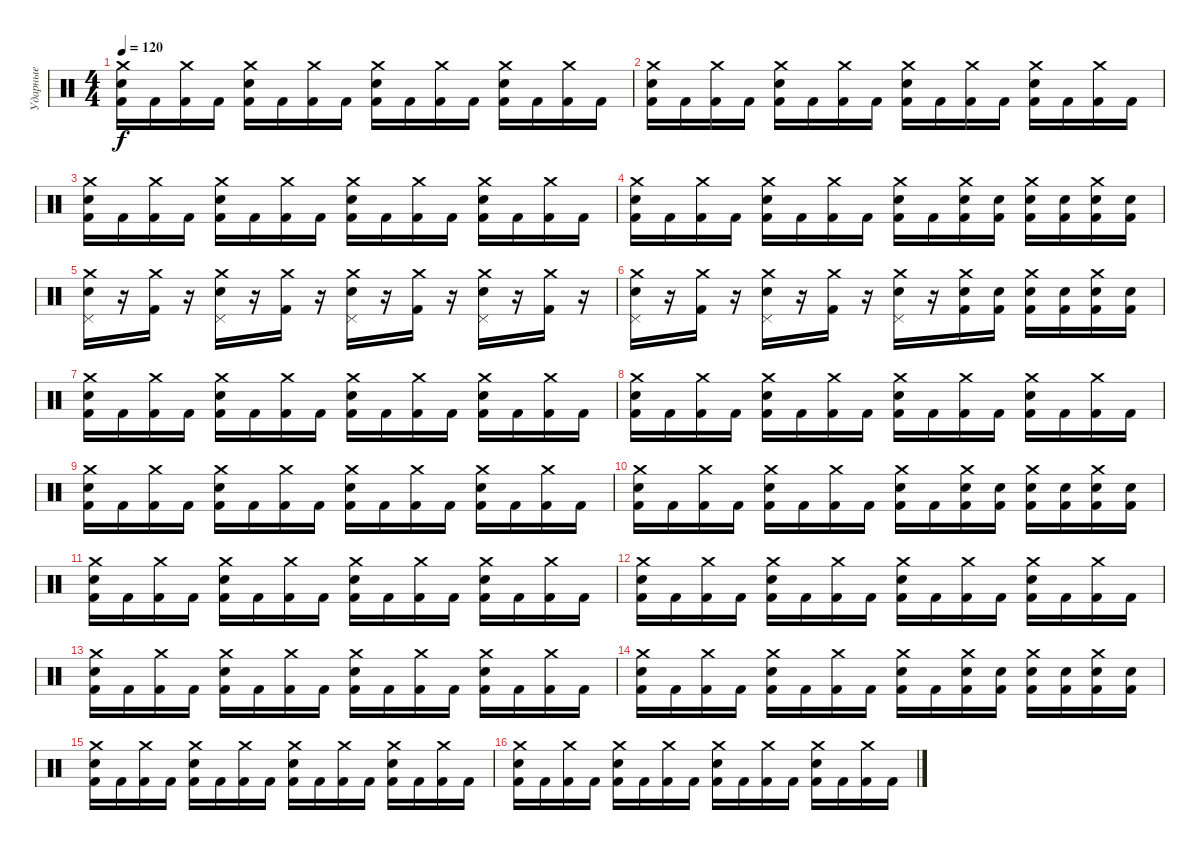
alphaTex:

\track ("Ударные" "Ударные") {instrument percussion}
\staff
\articulation defaults
\ts (4 4)
\tempo 120
\clef neutral
\ks c
("Crash medium (hit)" "Kick (hit) 2" "Electric Snare (hit)").16{dy f} "Kick (hit) 2".16 ("Crash medium (hit)" "Kick (hit) 2").16 "Kick (hit) 2".16 ("Crash medium (hit)" "Kick (hit) 2" "Electric Snare (hit)").16 "Kick (hit) 2".16 ("Crash medium (hit)" "Kick (hit) 2").16 "Kick (hit) 2".16 ("Crash medium (hit)" "Kick (hit) 2" "Electric Snare (hit)").16 "Kick (hit) 2".16 ("Crash medium (hit)" "Kick (hit) 2").16 "Kick (hit) 2".16 ("Crash medium (hit)" "Kick (hit) 2" "Electric Snare (hit)").16 "Kick (hit) 2".16 ("Crash medium (hit)" "Kick (hit) 2").16 "Kick (hit) 2".16 |
("Crash medium (hit)" "Kick (hit) 2" "Electric Snare (hit)").16 "Kick (hit) 2".16 ("Crash medium (hit)" "Kick (hit) 2").16 "Kick (hit) 2".16 ("Crash medium (hit)" "Kick (hit) 2" "Electric Snare (hit)").16 "Kick (hit) 2".16 ("Crash medium (hit)" "Kick (hit) 2").16 "Kick (hit) 2".16 ("Crash medium (hit)" "Kick (hit) 2" "Electric Snare (hit)").16 "Kick (hit) 2".16 ("Crash medium (hit)" "Kick (hit) 2").16 "Kick (hit) 2".16 ("Crash medium (hit)" "Kick (hit) 2" "Electric Snare (hit)").16 "Kick (hit) 2".16 ("Crash medium (hit)" "Kick (hit) 2").16 "Kick (hit) 2".16 |
("Crash medium (hit)" "Kick (hit) 2" "Electric Snare (hit)").16 "Kick (hit) 2".16 ("Crash medium (hit)" "Kick (hit) 2").16 "Kick (hit) 2".16 ("Crash medium (hit)" "Kick (hit) 2" "Electric Snare (hit)").16 "Kick (hit) 2".16 ("Crash medium (hit)" "Kick (hit) 2").16 "Kick (hit) 2".16 ("Crash medium (hit)" "Kick (hit) 2" "Electric Snare (hit)").16 "Kick (hit) 2".16 ("Crash medium (hit)" "Kick (hit) 2").16 "Kick (hit) 2".16 ("Crash medium (hit)" "Kick (hit) 2" "Electric Snare (hit)").16 "Kick (hit) 2".16 ("Crash medium (hit)" "Kick (hit) 2").16 "Kick (hit) 2".16 |
("Crash medium (hit)" "Kick (hit) 2" "Electric Snare (hit)").16 "Kick (hit) 2".16 ("Crash medium (hit)" "Kick (hit) 2").16 "Kick (hit) 2".16 ("Crash medium (hit)" "Kick (hit) 2" "Electric Snare (hit)").16 "Kick (hit) 2".16 ("Crash medium (hit)" "Kick (hit) 2").16 "Kick (hit) 2".16 ("Crash medium (hit)" "Kick (hit) 2" "Electric Snare (hit)").16 "Kick (hit) 2".16 ("Crash medium (hit)" "Kick (hit) 2" "Electric Snare (hit)").16 ("Kick (hit) 2" "Electric Snare (hit)").16 ("Crash medium (hit)" "Kick (hit) 2" "Electric Snare (hit)").16 ("Kick (hit) 2" "Electric Snare (hit)").16 ("Crash medium (hit)" "Kick (hit) 2" "Electric Snare (hit)").16 ("Kick (hit) 2" "Electric Snare (hit)").16 |
("Crash medium (hit)" "Electric Snare (hit)" "Pedal Hi-Hat (hit)").16 r.16 ("Crash medium (hit)" "Kick (hit) 2").16 r.16 ("Crash medium (hit)" "Electric Snare (hit)" "Pedal Hi-Hat (hit)").16 r.16 ("Crash medium (hit)" "Kick (hit) 2").16 r.16 ("Crash medium (hit)" "Electric Snare (hit)" "Pedal Hi-Hat (hit)").16 r.16 ("Crash medium (hit)" "Kick (hit) 2").16 r.16 ("Crash medium (hit)" "Electric Snare (hit)" "Pedal Hi-Hat (hit)").16 r.16 ("Crash medium (hit)" "Kick (hit) 2").16 r.16 |
("Crash medium (hit)" "Electric Snare (hit)" "Pedal Hi-Hat (hit)").16 r.16 ("Crash medium (hit)" "Kick (hit) 2").16 r.16 ("Crash medium (hit)" "Electric Snare (hit)" "Pedal Hi-Hat (hit)").16 r.16 ("Crash medium (hit)" "Kick (hit) 2").16 r.16 ("Crash medium (hit)" "Electric Snare (hit)" "Pedal Hi-Hat (hit)").16 r.16 ("Crash medium (hit)" "Kick (hit) 2" "Electric Snare (hit)").16 ("Kick (hit) 2" "Electric Snare (hit)").16 ("Crash medium (hit)" "Kick (hit) 2" "Electric Snare (hit)").16 ("Kick (hit) 2" "Electric Snare (hit)").16 ("Crash medium (hit)" "Kick (hit) 2" "Electric Snare (hit)").16 ("Kick (hit) 2" "Electric Snare (hit)").16 |
("Crash medium (hit)" "Kick (hit) 2" "Electric Snare (hit)").16 "Kick (hit) 2".16 ("Crash medium (hit)" "Kick (hit) 2").16 "Kick (hit) 2".16 ("Crash medium (hit)" "Kick (hit) 2" "Electric Snare (hit)").16 "Kick (hit) 2".16 ("Crash medium (hit)" "Kick (hit) 2").16 "Kick (hit) 2".16 ("Crash medium (hit)" "Kick (hit) 2" "Electric Snare (hit)").16 "Kick (hit) 2".16 ("Crash medium (hit)" "Kick (hit) 2").16 "Kick (hit) 2".16 ("Crash medium (hit)" "Kick (hit) 2" "Electric Snare (hit)").16 "Kick (hit) 2".16 ("Crash medium (hit)" "Kick (hit) 2").16 "Kick (hit) 2".16 |
("Crash medium (hit)" "Kick (hit) 2" "Electric Snare (hit)").16 "Kick (hit) 2".16 ("Crash medium (hit)" "Kick (hit) 2").16 "Kick (hit) 2".16 ("Crash medium (hit)" "Kick (hit) 2" "Electric Snare (hit)").16 "Kick (hit) 2".16 ("Crash medium (hit)" "Kick (hit) 2").16 "Kick (hit) 2".16 ("Crash medium (hit)" "Kick (hit) 2" "Electric Snare (hit)").16 "Kick (hit) 2".16 ("Crash medium (hit)" "Kick (hit) 2").16 "Kick (hit) 2".16 ("Crash medium (hit)" "Kick (hit) 2" "Electric Snare (hit)").16 "Kick (hit) 2".16 ("Crash medium (hit)" "Kick (hit) 2").16 "Kick (hit) 2".16 |
("Crash medium (hit)" "Kick (hit) 2" "Electric Snare (hit)").16 "Kick (hit) 2".16 ("Crash medium (hit)" "Kick (hit) 2").16 "Kick (hit) 2".16 ("Crash medium (hit)" "Kick (hit) 2" "Electric Snare (hit)").16 "Kick (hit) 2".16 ("Crash medium (hit)" "Kick (hit) 2").16 "Kick (hit) 2".16 ("Crash medium (hit)" "Kick (hit) 2" "Electric Snare (hit)").16 "Kick (hit) 2".16 ("Crash medium (hit)" "Kick (hit) 2").16 "Kick (hit) 2".16 ("Crash medium (hit)" "Kick (hit) 2" "Electric Snare (hit)").16 "Kick (hit) 2".16 ("Crash medium (hit)" "Kick (hit) 2").16 "Kick (hit) 2".16 |
("Crash medium (hit)" "Kick (hit) 2" "Electric Snare (hit)").16 "Kick (hit) 2".16 ("Crash medium (hit)" "Kick (hit) 2").16 "Kick (hit) 2".16 ("Crash medium (hit)" "Kick (hit) 2" "Electric Snare (hit)").16 "Kick (hit) 2".16 ("Crash medium (hit)" "Kick (hit) 2").16 "Kick (hit) 2".16 ("Crash medium (hit)" "Kick (hit) 2" "Electric Snare (hit)").16 "Kick (hit) 2".16 ("Crash medium (hit)" "Kick (hit) 2" "Electric Snare (hit)").16 ("Kick (hit) 2" "Electric Snare (hit)").16 ("Crash medium (hit)" "Kick (hit) 2" "Electric Snare (hit)").16 ("Kick (hit) 2" "Electric Snare (hit)").16 ("Crash medium (hit)" "Kick (hit) 2" "Electric Snare (hit)").16 ("Kick (hit) 2" "Electric Snare (hit)").16 |
("Crash medium (hit)" "Kick (hit) 2" "Electric Snare (hit)").16 "Kick (hit) 2".16 ("Crash medium (hit)" "Kick (hit) 2").16 "Kick (hit) 2".16 ("Crash medium (hit)" "Kick (hit) 2" "Electric Snare (hit)").16 "Kick (hit) 2".16 ("Crash medium (hit)" "Kick (hit) 2").16 "Kick (hit) 2".16 ("Crash medium (hit)" "Kick (hit) 2" "Electric Snare (hit)").16 "Kick (hit) 2".16 ("Crash medium (hit)" "Kick (hit) 2").16 "Kick (hit) 2".16 ("Crash medium (hit)" "Kick (hit) 2" "Electric Snare (hit)").16 "Kick (hit) 2".16 ("Crash medium (hit)" "Kick (hit) 2").16 "Kick (hit) 2".16 |
("Crash medium (hit)" "Kick (hit) 2" "Electric Snare (hit)").16 "Kick (hit) 2".16 ("Crash medium (hit)" "Kick (hit) 2").16 "Kick (hit) 2".16 ("Crash medium (hit)" "Kick (hit) 2" "Electric Snare (hit)").16 "Kick (hit) 2".16 ("Crash medium (hit)" "Kick (hit) 2").16 "Kick (hit) 2".16 ("Crash medium (hit)" "Kick (hit) 2" "Electric Snare (hit)").16 "Kick (hit) 2".16 ("Crash medium (hit)" "Kick (hit) 2").16 "Kick (hit) 2".16 ("Crash medium (hit)" "Kick (hit) 2" "Electric Snare (hit)").16 "Kick (hit) 2".16 ("Crash medium (hit)" "Kick (hit) 2").16 "Kick (hit) 2".16 |
("Crash medium (hit)" "Kick (hit) 2" "Electric Snare (hit)").16 "Kick (hit) 2".16 ("Crash medium (hit)" "Kick (hit) 2").16 "Kick (hit) 2".16 ("Crash medium (hit)" "Kick (hit) 2" "Electric Snare (hit)").16 "Kick (hit) 2".16 ("Crash medium (hit)" "Kick (hit) 2").16 "Kick (hit) 2".16 ("Crash medium (hit)" "Kick (hit) 2" "Electric Snare (hit)").16 "Kick (hit) 2".16 ("Crash medium (hit)" "Kick (hit) 2").16 "Kick (hit) 2".16 ("Crash medium (hit)" "Kick (hit) 2" "Electric Snare (hit)").16 "Kick (hit) 2".16 ("Crash medium (hit)" "Kick (hit) 2").16 "Kick (hit) 2".16 |
("Crash medium (hit)" "Kick (hit) 2" "Electric Snare (hit)").16 "Kick (hit) 2".16 ("Crash medium (hit)" "Kick (hit) 2").16 "Kick (hit) 2".16 ("Crash medium (hit)" "Kick (hit) 2" "Electric Snare (hit)").16 "Kick (hit) 2".16 ("Crash medium (hit)" "Kick (hit) 2").16 "Kick (hit) 2".16 ("Crash medium (hit)" "Kick (hit) 2" "Electric Snare (hit)").16 "Kick (hit) 2".16 ("Crash medium (hit)" "Kick (hit) 2" "Electric Snare (hit)").16 ("Kick (hit) 2" "Electric Snare (hit)").16 ("Crash medium (hit)" "Kick (hit) 2" "Electric Snare (hit)").16 ("Kick (hit) 2" "Electric Snare (hit)").16 ("Crash medium (hit)" "Kick (hit) 2" "Electric Snare (hit)").16 ("Kick (hit) 2" "Electric Snare (hit)").16 |
("Crash medium (hit)" "Kick (hit) 2" "Electric Snare (hit)").16 "Kick (hit) 2".16 ("Crash medium (hit)" "Kick (hit) 2").16 "Kick (hit) 2".16 ("Crash medium (hit)" "Kick (hit) 2" "Electric Snare (hit)").16 "Kick (hit) 2".16 ("Crash medium (hit)" "Kick (hit) 2").16 "Kick (hit) 2".16 ("Crash medium (hit)" "Kick (hit) 2" "Electric Snare (hit)").16 "Kick (hit) 2".16 ("Crash medium (hit)" "Kick (hit) 2").16 "Kick (hit) 2".16 ("Crash medium (hit)" "Kick (hit) 2" "Electric Snare (hit)").16 "Kick (hit) 2".16 ("Crash medium (hit)" "Kick (hit) 2").16 "Kick (hit) 2".16 |
("Crash medium (hit)" "Kick (hit) 2" "Electric Snare (hit)").16 "Kick (hit) 2".16 ("Crash medium (hit)" "Kick (hit) 2").16 "Kick (hit) 2".16 ("Crash medium (hit)" "Kick (hit) 2" "Electric Snare (hit)").16 "Kick (hit) 2".16 ("Crash medium (hit)" "Kick (hit) 2").16 "Kick (hit) 2".16 ("Crash medium (hit)" "Kick (hit) 2" "Electric Snare (hit)").16 "Kick (hit) 2".16 ("Crash medium (hit)" "Kick (hit) 2").16 "Kick (hit) 2".16 ("Crash medium (hit)" "Kick (hit) 2" "Electric Snare (hit)").16 "Kick (hit) 2".16 ("Crash medium (hit)" "Kick (hit) 2").16 "Kick (hit) 2".16
